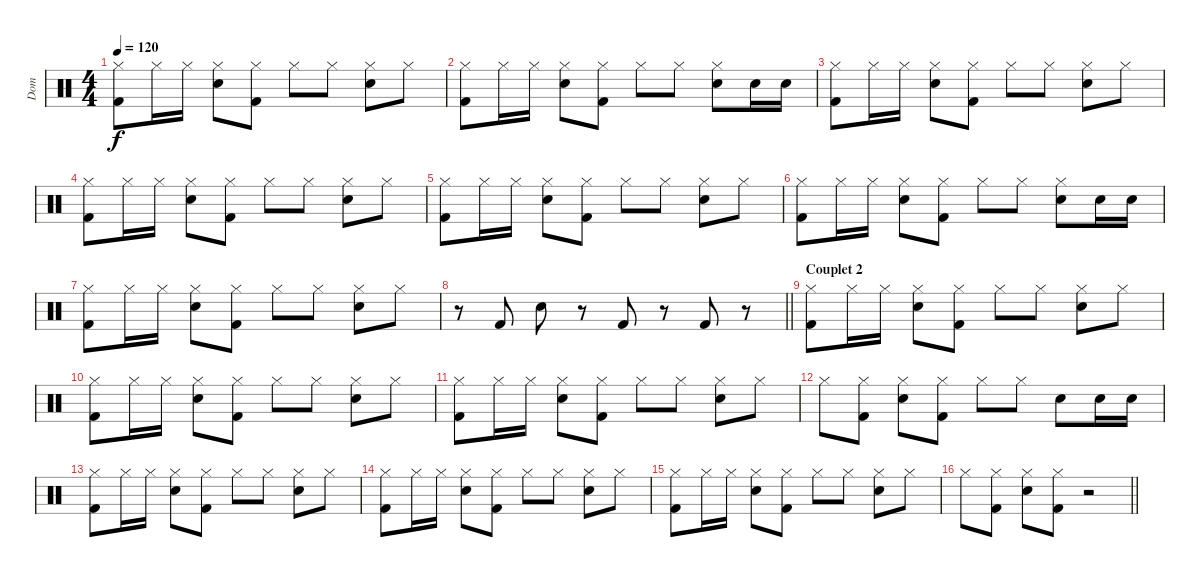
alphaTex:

\track ("Dom" "Dom") {instrument percussion}
\staff {score}
\articulation defaults
\ts (4 4)
\tempo 120
\clef neutral
\ks c
("Kick (hit) 2" "Hi-Hat (closed)").8{dy f} "Hi-Hat (closed)".16 "Hi-Hat (closed)".16 ("Snare (hit) 2" "Hi-Hat (closed)").8 ("Kick (hit) 2" "Hi-Hat (closed)").8 "Hi-Hat (closed)".8 "Hi-Hat (closed)".8 ("Snare (hit) 2" "Hi-Hat (closed)").8 "Hi-Hat (closed)".8 |
("Kick (hit) 2" "Hi-Hat (closed)").8 "Hi-Hat (closed)".16 "Hi-Hat (closed)".16 ("Snare (hit) 2" "Hi-Hat (closed)").8 ("Kick (hit) 2" "Hi-Hat (closed)").8 "Hi-Hat (closed)".8 "Hi-Hat (closed)".8 ("Snare (hit) 2" "Hi-Hat (closed)").8 "Snare (hit) 2".16 "Snare (hit) 2".16 |
("Kick (hit) 2" "Hi-Hat (closed)").8 "Hi-Hat (closed)".16 "Hi-Hat (closed)".16 ("Snare (hit) 2" "Hi-Hat (closed)").8 ("Kick (hit) 2" "Hi-Hat (closed)").8 "Hi-Hat (closed)".8 "Hi-Hat (closed)".8 ("Snare (hit) 2" "Hi-Hat (closed)").8 "Hi-Hat (closed)".8 |
("Kick (hit) 2" "Hi-Hat (closed)").8 "Hi-Hat (closed)".16 "Hi-Hat (closed)".16 ("Snare (hit) 2" "Hi-Hat (closed)").8 ("Kick (hit) 2" "Hi-Hat (closed)").8 "Hi-Hat (closed)".8 "Hi-Hat (closed)".8 ("Snare (hit) 2" "Hi-Hat (closed)").8 "Hi-Hat (closed)".8 |
("Kick (hit) 2" "Hi-Hat (closed)").8 "Hi-Hat (closed)".16 "Hi-Hat (closed)".16 ("Snare (hit) 2" "Hi-Hat (closed)").8 ("Kick (hit) 2" "Hi-Hat (closed)").8 "Hi-Hat (closed)".8 "Hi-Hat (closed)".8 ("Snare (hit) 2" "Hi-Hat (closed)").8 "Hi-Hat (closed)".8 |
("Kick (hit) 2" "Hi-Hat (closed)").8 "Hi-Hat (closed)".16 "Hi-Hat (closed)".16 ("Snare (hit) 2" "Hi-Hat (closed)").8 ("Kick (hit) 2" "Hi-Hat (closed)").8 "Hi-Hat (closed)".8 "Hi-Hat (closed)".8 ("Snare (hit) 2" "Hi-Hat (closed)").8 "Snare (hit) 2".16 "Snare (hit) 2".16 |
("Kick (hit) 2" "Hi-Hat (closed)").8 "Hi-Hat (closed)".16 "Hi-Hat (closed)".16 ("Snare (hit) 2" "Hi-Hat (closed)").8 ("Kick (hit) 2" "Hi-Hat (closed)").8 "Hi-Hat (closed)".8 "Hi-Hat (closed)".8 ("Snare (hit) 2" "Hi-Hat (closed)").8 "Hi-Hat (closed)".8 |
\barLineRight lightlight
r.8 "Kick (hit) 2".8 "Snare (hit) 2".8 r.8 "Kick (hit) 2".8 r.8 "Kick (hit) 2".8 r.8 |
\section ("" "Couplet 2")
("Kick (hit) 2" "Hi-Hat (closed)").8 "Hi-Hat (closed)".16 "Hi-Hat (closed)".16 ("Snare (hit) 2" "Hi-Hat (closed)").8 ("Kick (hit) 2" "Hi-Hat (closed)").8 "Hi-Hat (closed)".8 "Hi-Hat (closed)".8 ("Snare (hit) 2" "Hi-Hat (closed)").8 "Hi-Hat (closed)".8 |
("Kick (hit) 2" "Hi-Hat (closed)").8 "Hi-Hat (closed)".16 "Hi-Hat (closed)".16 ("Snare (hit) 2" "Hi-Hat (closed)").8 ("Kick (hit) 2" "Hi-Hat (closed)").8 "Hi-Hat (closed)".8 "Hi-Hat (closed)".8 ("Snare (hit) 2" "Hi-Hat (closed)").8 "Hi-Hat (closed)".8 |
("Kick (hit) 2" "Hi-Hat (closed)").8 "Hi-Hat (closed)".16 "Hi-Hat (closed)".16 ("Snare (hit) 2" "Hi-Hat (closed)").8 ("Kick (hit) 2" "Hi-Hat (closed)").8 "Hi-Hat (closed)".8 "Hi-Hat (closed)".8 ("Snare (hit) 2" "Hi-Hat (closed)").8 "Hi-Hat (closed)".8 |
"Hi-Hat (closed)".8 ("Kick (hit) 2" "Hi-Hat (closed)").8 ("Snare (hit) 2" "Hi-Hat (closed)").8 ("Kick (hit) 2" "Hi-Hat (closed)").8 "Hi-Hat (closed)".8 "Hi-Hat (closed)".8 "Snare (hit) 2".8 "Snare (hit) 2".16 "Snare (hit) 2".16 |
("Kick (hit) 2" "Hi-Hat (closed)").8 "Hi-Hat (closed)".16 "Hi-Hat (closed)".16 ("Snare (hit) 2" "Hi-Hat (closed)").8 ("Kick (hit) 2" "Hi-Hat (closed)").8 "Hi-Hat (closed)".8 "Hi-Hat (closed)".8 ("Snare (hit) 2" "Hi-Hat (closed)").8 "Hi-Hat (closed)".8 |
("Kick (hit) 2" "Hi-Hat (closed)").8 "Hi-Hat (closed)".16 "Hi-Hat (closed)".16 ("Snare (hit) 2" "Hi-Hat (closed)").8 ("Kick (hit) 2" "Hi-Hat (closed)").8 "Hi-Hat (closed)".8 "Hi-Hat (closed)".8 ("Snare (hit) 2" "Hi-Hat (closed)").8 "Hi-Hat (closed)".8 |
("Kick (hit) 2" "Hi-Hat (closed)").8 "Hi-Hat (closed)".16 "Hi-Hat (closed)".16 ("Snare (hit) 2" "Hi-Hat (closed)").8 ("Kick (hit) 2" "Hi-Hat (closed)").8 "Hi-Hat (closed)".8 "Hi-Hat (closed)".8 ("Snare (hit) 2" "Hi-Hat (closed)").8 "Hi-Hat (closed)".8 |
\barLineRight lightlight "Hi-Hat (closed)".8
("Kick (hit) 2" "Hi-Hat (closed)").8 ("Snare (hit) 2" "Hi-Hat (closed)").8 ("Kick (hit) 2" "Hi-Hat (closed)").8 r.2
